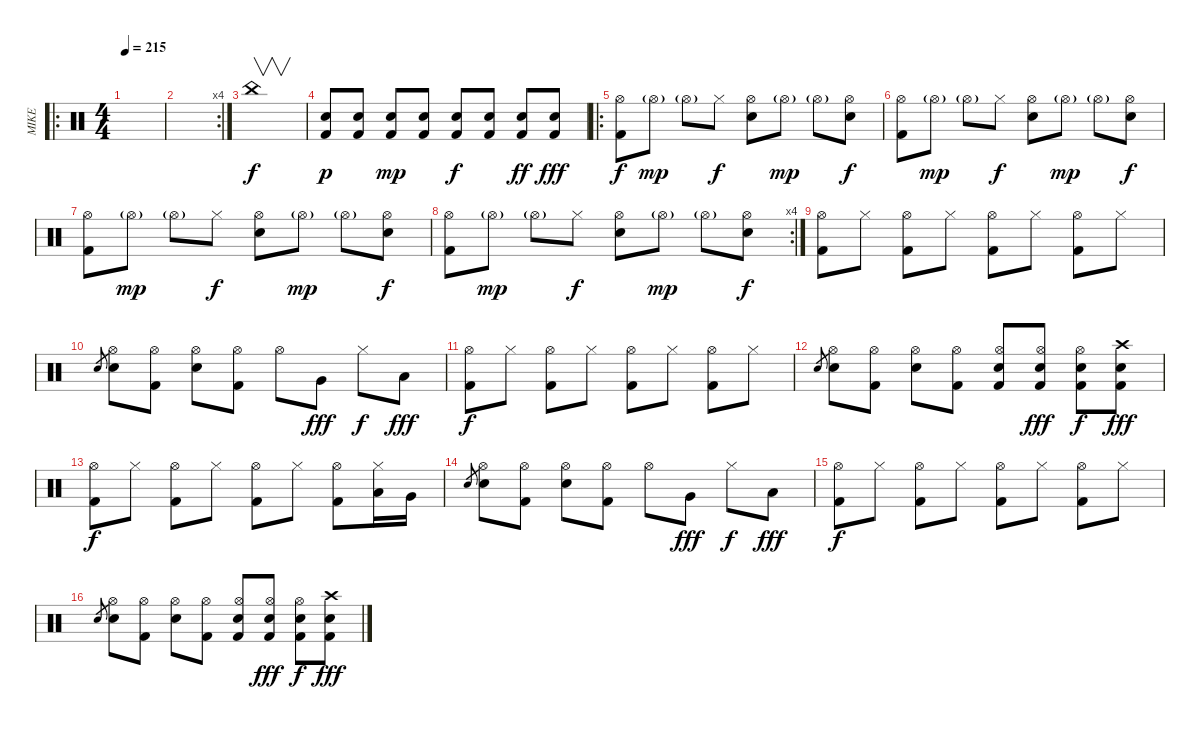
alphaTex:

\track ("MIKE" "MIKE") {instrument percussion}
\staff {score}
\articulation defaults
\ro
\ts (4 4)
\tempo 215
\clef neutral
\ks c
|
\rc 4
|
"China (hit)".1{v} |
("Snare (hit) 2" "Kick (hit) 2").8{dy p} ("Snare (hit) 2" "Kick (hit) 2").8 ("Snare (hit) 2" "Kick (hit) 2").8{dy mp} ("Snare (hit) 2" "Kick (hit) 2").8 ("Snare (hit) 2" "Kick (hit) 2").8{dy f} ("Snare (hit) 2" "Kick (hit) 2").8 ("Snare (hit) 2" "Kick (hit) 2").8{dy ff} ("Snare (hit) 2" "Kick (hit) 2").8{dy fff} |
\ro
("Hi-Hat (open)" "Kick (hit) 2").8{dy f} "Hi-Hat (open)"{g}.8{dy mp} "Hi-Hat (open)"{g}.8 "Hi-Hat (closed)".8{dy f} ("Hi-Hat (open)" "Snare (hit) 2").8 "Hi-Hat (open)"{g}.8{dy mp} "Hi-Hat (open)"{g}.8 ("Hi-Hat (open)" "Snare (hit) 2").8{dy f} |
("Hi-Hat (open)" "Kick (hit) 2").8 "Hi-Hat (open)"{g}.8{dy mp} "Hi-Hat (open)"{g}.8 "Hi-Hat (closed)".8{dy f} ("Hi-Hat (open)" "Snare (hit) 2").8 "Hi-Hat (open)"{g}.8{dy mp} "Hi-Hat (open)"{g}.8 ("Hi-Hat (open)" "Snare (hit) 2").8{dy f} |
("Hi-Hat (open)" "Kick (hit) 2").8 "Hi-Hat (open)"{g}.8{dy mp} "Hi-Hat (open)"{g}.8 "Hi-Hat (closed)".8{dy f} ("Hi-Hat (open)" "Snare (hit) 2").8 "Hi-Hat (open)"{g}.8{dy mp} "Hi-Hat (open)"{g}.8 ("Hi-Hat (open)" "Snare (hit) 2").8{dy f} |
\rc 4
("Hi-Hat (open)" "Kick (hit) 2").8 "Hi-Hat (open)"{g}.8{dy mp} "Hi-Hat (open)"{g}.8 "Hi-Hat (closed)".8{dy f} ("Hi-Hat (open)" "Snare (hit) 2").8 "Hi-Hat (open)"{g}.8{dy mp} "Hi-Hat (open)"{g}.8 ("Hi-Hat (open)" "Snare (hit) 2").8{dy f} |
("Kick (hit) 2" "Hi-Hat (open)").8 "Hi-Hat (closed)".8 ("Kick (hit) 2" "Hi-Hat (open)").8 "Hi-Hat (closed)".8 ("Kick (hit) 2" "Hi-Hat (open)").8 "Hi-Hat (closed)".8 ("Kick (hit) 2" "Hi-Hat (open)").8 "Hi-Hat (closed)".8 |
"Electric Snare (hit)".8{gr} ("Electric Snare (hit)" "Hi-Hat (open)").8 ("Kick (hit) 2" "Hi-Hat (open)").8 ("Electric Snare (hit)" "Hi-Hat (open)").8 ("Kick (hit) 2" "Hi-Hat (open)").8 "Hi-Hat (open)".8 "Very Low Tom (hit)".8{dy fff} "Hi-Hat (closed)".8{dy f} "Low Tom (hit)".8{dy fff} |
("Kick (hit) 2" "Hi-Hat (open)").8{dy f} "Hi-Hat (closed)".8 ("Kick (hit) 2" "Hi-Hat (open)").8 "Hi-Hat (closed)".8 ("Kick (hit) 2" "Hi-Hat (open)").8 "Hi-Hat (closed)".8 ("Kick (hit) 2" "Hi-Hat (open)").8 "Hi-Hat (closed)".8 |
"Electric Snare (hit)".8{gr} ("Electric Snare (hit)" "Hi-Hat (open)").8 ("Kick (hit) 2" "Hi-Hat (open)").8 ("Electric Snare (hit)" "Hi-Hat (open)").8 ("Kick (hit) 2" "Hi-Hat (open)").8 ("Electric Snare (hit)" "Kick (hit) 2" "Hi-Hat (open)").8 ("Electric Snare (hit)" "Kick (hit) 2" "Hi-Hat (open)").8{dy fff} ("Electric Snare (hit)" "Kick (hit) 2" "Hi-Hat (open)").8{dy f} ("Electric Snare (hit)" "Kick (hit) 2" "Crash high (hit)").8{dy fff} |
("Kick (hit) 2" "Hi-Hat (open)").8{dy f} "Hi-Hat (closed)".8 ("Kick (hit) 2" "Hi-Hat (open)").8 "Hi-Hat (closed)".8 ("Kick (hit) 2" "Hi-Hat (open)").8 "Hi-Hat (closed)".8 ("Kick (hit) 2" "Hi-Hat (open)").8 ("Hi-Hat (closed)" "Low Tom (hit)").16 "Very Low Tom (hit)".16 |
"Electric Snare (hit)".8{gr} ("Electric Snare (hit)" "Hi-Hat (open)").8 ("Kick (hit) 2" "Hi-Hat (open)").8 ("Electric Snare (hit)" "Hi-Hat (open)").8 ("Kick (hit) 2" "Hi-Hat (open)").8 "Hi-Hat (open)".8 "Very Low Tom (hit)".8{dy fff} "Hi-Hat (closed)".8{dy f} "Low Tom (hit)".8{dy fff} |
("Kick (hit) 2" "Hi-Hat (open)").8{dy f} "Hi-Hat (closed)".8 ("Kick (hit) 2" "Hi-Hat (open)").8 "Hi-Hat (closed)".8 ("Kick (hit) 2" "Hi-Hat (open)").8 "Hi-Hat (closed)".8 ("Kick (hit) 2" "Hi-Hat (open)").8 "Hi-Hat (closed)".8 |
"Electric Snare (hit)".8{gr} ("Electric Snare (hit)" "Hi-Hat (open)").8 ("Kick (hit) 2" "Hi-Hat (open)").8 ("Electric Snare (hit)" "Hi-Hat (open)").8 ("Kick (hit) 2" "Hi-Hat (open)").8 ("Electric Snare (hit)" "Kick (hit) 2" "Hi-Hat (open)").8 ("Electric Snare (hit)" "Kick (hit) 2" "Hi-Hat (open)").8{dy fff} ("Electric Snare (hit)" "Kick (hit) 2" "Hi-Hat (open)").8{dy f} ("Electric Snare (hit)" "Kick (hit) 2" "Crash high (hit)").8{dy fff}
